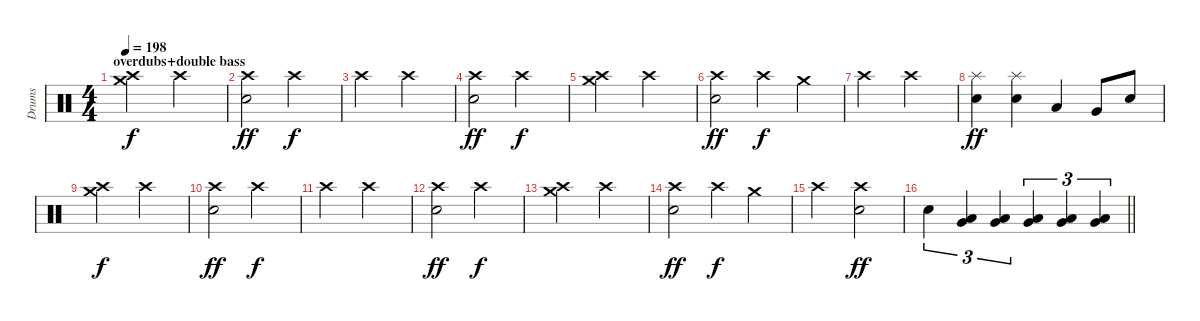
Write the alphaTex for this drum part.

\track ("Drums" "Drums") {instrument percussion}
\staff {score}
\articulation defaults
\ts (4 4)
\section ("" "overdubs+double bass")
\tempo 198
\clef neutral
\ks c
("Crash high (hit)" "Crash medium (hit)").2{dy f} "Crash high (hit)".2 |
("Crash high (hit)" "Snare (hit) 2").2{dy ff} "Crash high (hit)".2{dy f} |
"Crash high (hit)".2 "Crash high (hit)".2 |
("Crash high (hit)" "Snare (hit) 2").2{dy ff} "Crash high (hit)".2{dy f} |
("Crash high (hit)" "Crash medium (hit)").2 "Crash high (hit)".2 |
("Crash high (hit)" "Snare (hit) 2").2{dy ff} "Crash high (hit)".4{dy f} "Crash medium (hit)".4 |
"Crash high (hit)".2 "Crash high (hit)".2 |
("Splash (hit)" "Snare (hit) 2").4{dy ff} ("Splash (hit)" "Snare (hit) 2").4 "Low Tom (hit)".4 "Very Low Tom (hit)".8 "Snare (hit) 2".8 |
("Crash high (hit)" "Crash medium (hit)").2{dy f} "Crash high (hit)".2 |
("Crash high (hit)" "Snare (hit) 2").2{dy ff} "Crash high (hit)".2{dy f} |
"Crash high (hit)".2 "Crash high (hit)".2 |
("Crash high (hit)" "Snare (hit) 2").2{dy ff} "Crash high (hit)".2{dy f} |
("Crash high (hit)" "Crash medium (hit)").2 "Crash high (hit)".2 |
("Crash high (hit)" "Snare (hit) 2").2{dy ff} "Crash high (hit)".4{dy f} "Crash medium (hit)".4 |
"Crash high (hit)".2 ("Crash high (hit)" "Snare (hit) 2").2{dy ff} |
\barLineRight lightlight "Snare (hit) 2".4{tu (3 2)}
("Low Tom (hit)" "Very Low Tom (hit)").4{tu (3 2)} ("Low Tom (hit)" "Very Low Tom (hit)").4{tu (3 2)} ("Very Low Tom (hit)" "Low Floor Tom (hit)").4{tu (3 2)} ("Very Low Tom (hit)" "Low Floor Tom (hit)").4{tu (3 2)} ("Very Low Tom (hit)" "Low Floor Tom (hit)").4{tu (3 2)}
